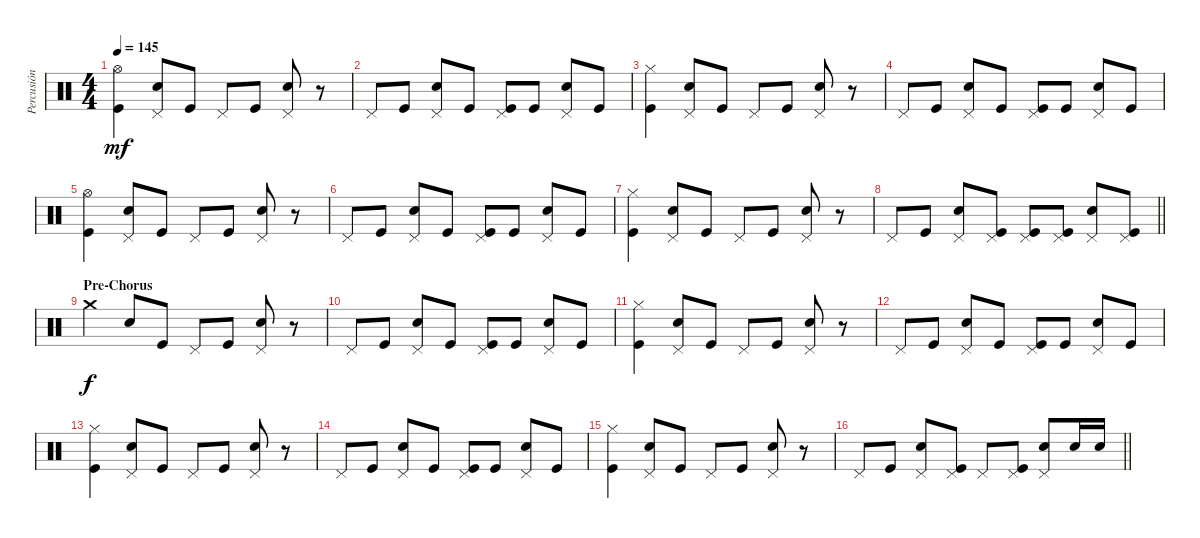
\track ("Percusión" "Percusión") {instrument percussion}
\staff {score}
\articulation defaults
\ts (4 4)
\tempo 145
\clef neutral
\ks c
("Hi-Hat (open)" "Kick (hit)").4{dy mf} ("Pedal Hi-Hat (hit)" "Snare (hit) 2").8 "Kick (hit)".8 "Pedal Hi-Hat (hit)".8 "Kick (hit)".8 ("Pedal Hi-Hat (hit)" "Snare (hit) 2").8 r.8 |
"Pedal Hi-Hat (hit)".8 "Kick (hit)".8 ("Pedal Hi-Hat (hit)" "Snare (hit) 2").8 "Kick (hit)".8 ("Pedal Hi-Hat (hit)" "Kick (hit)").8 "Kick (hit)".8 ("Pedal Hi-Hat (hit)" "Snare (hit) 2").8 "Kick (hit)".8 |
("Hi-Hat (closed)" "Kick (hit)").4 ("Pedal Hi-Hat (hit)" "Snare (hit) 2").8 "Kick (hit)".8 "Pedal Hi-Hat (hit)".8 "Kick (hit)".8 ("Pedal Hi-Hat (hit)" "Snare (hit) 2").8 r.8 |
"Pedal Hi-Hat (hit)".8 "Kick (hit)".8 ("Pedal Hi-Hat (hit)" "Snare (hit) 2").8 "Kick (hit)".8 ("Pedal Hi-Hat (hit)" "Kick (hit)").8 "Kick (hit)".8 ("Pedal Hi-Hat (hit)" "Snare (hit) 2").8 "Kick (hit)".8 |
("Hi-Hat (open)" "Kick (hit)").4 ("Pedal Hi-Hat (hit)" "Snare (hit) 2").8 "Kick (hit)".8 "Pedal Hi-Hat (hit)".8 "Kick (hit)".8 ("Pedal Hi-Hat (hit)" "Snare (hit) 2").8 r.8 |
"Pedal Hi-Hat (hit)".8 "Kick (hit)".8 ("Pedal Hi-Hat (hit)" "Snare (hit) 2").8 "Kick (hit)".8 ("Pedal Hi-Hat (hit)" "Kick (hit)").8 "Kick (hit)".8 ("Pedal Hi-Hat (hit)" "Snare (hit) 2").8 "Kick (hit)".8 |
("Hi-Hat (closed)" "Kick (hit)").4 ("Pedal Hi-Hat (hit)" "Snare (hit) 2").8 "Kick (hit)".8 "Pedal Hi-Hat (hit)".8 "Kick (hit)".8 ("Pedal Hi-Hat (hit)" "Snare (hit) 2").8 r.8 |
\barLineRight lightlight "Pedal Hi-Hat (hit)".8 "Kick (hit)".8
("Pedal Hi-Hat (hit)" "Snare (hit) 2").8 ("Pedal Hi-Hat (hit)" "Kick (hit)").8 ("Pedal Hi-Hat (hit)" "Kick (hit)").8 ("Pedal Hi-Hat (hit)" "Kick (hit)").8 ("Pedal Hi-Hat (hit)" "Snare (hit) 2").8 ("Pedal Hi-Hat (hit)" "Kick (hit)").8 |
\section ("" "Pre-Chorus")
"Crash medium (hit)".4{dy f} "Snare (hit) 2".8 "Kick (hit)".8 "Pedal Hi-Hat (hit)".8 "Kick (hit)".8 ("Pedal Hi-Hat (hit)" "Snare (hit) 2").8 r.8 |
"Pedal Hi-Hat (hit)".8 "Kick (hit)".8 ("Pedal Hi-Hat (hit)" "Snare (hit) 2").8 "Kick (hit)".8 ("Pedal Hi-Hat (hit)" "Kick (hit)").8 "Kick (hit)".8 ("Pedal Hi-Hat (hit)" "Snare (hit) 2").8 "Kick (hit)".8 |
("Hi-Hat (closed)" "Kick (hit)").4 ("Pedal Hi-Hat (hit)" "Snare (hit) 2").8 "Kick (hit)".8 "Pedal Hi-Hat (hit)".8 "Kick (hit)".8 ("Pedal Hi-Hat (hit)" "Snare (hit) 2").8 r.8 |
"Pedal Hi-Hat (hit)".8 "Kick (hit)".8 ("Pedal Hi-Hat (hit)" "Snare (hit) 2").8 "Kick (hit)".8 ("Pedal Hi-Hat (hit)" "Kick (hit)").8 "Kick (hit)".8 ("Pedal Hi-Hat (hit)" "Snare (hit) 2").8 "Kick (hit)".8 |
("Hi-Hat (closed)" "Kick (hit)").4 ("Pedal Hi-Hat (hit)" "Snare (hit) 2").8 "Kick (hit)".8 "Pedal Hi-Hat (hit)".8 "Kick (hit)".8 ("Pedal Hi-Hat (hit)" "Snare (hit) 2").8 r.8 |
"Pedal Hi-Hat (hit)".8 "Kick (hit)".8 ("Pedal Hi-Hat (hit)" "Snare (hit) 2").8 "Kick (hit)".8 ("Pedal Hi-Hat (hit)" "Kick (hit)").8 "Kick (hit)".8 ("Pedal Hi-Hat (hit)" "Snare (hit) 2").8 "Kick (hit)".8 |
("Hi-Hat (closed)" "Kick (hit)").4 ("Pedal Hi-Hat (hit)" "Snare (hit) 2").8 "Kick (hit)".8 "Pedal Hi-Hat (hit)".8 "Kick (hit)".8 ("Pedal Hi-Hat (hit)" "Snare (hit) 2").8 r.8 |
\barLineRight lightlight "Pedal Hi-Hat (hit)".8 "Kick (hit)".8
("Pedal Hi-Hat (hit)" "Snare (hit) 2").8 ("Pedal Hi-Hat (hit)" "Kick (hit)").8 "Pedal Hi-Hat (hit)".8 ("Pedal Hi-Hat (hit)" "Kick (hit)").8 ("Pedal Hi-Hat (hit)" "Snare (hit) 2").8 "Snare (hit) 2".16 "Snare (hit) 2".16
